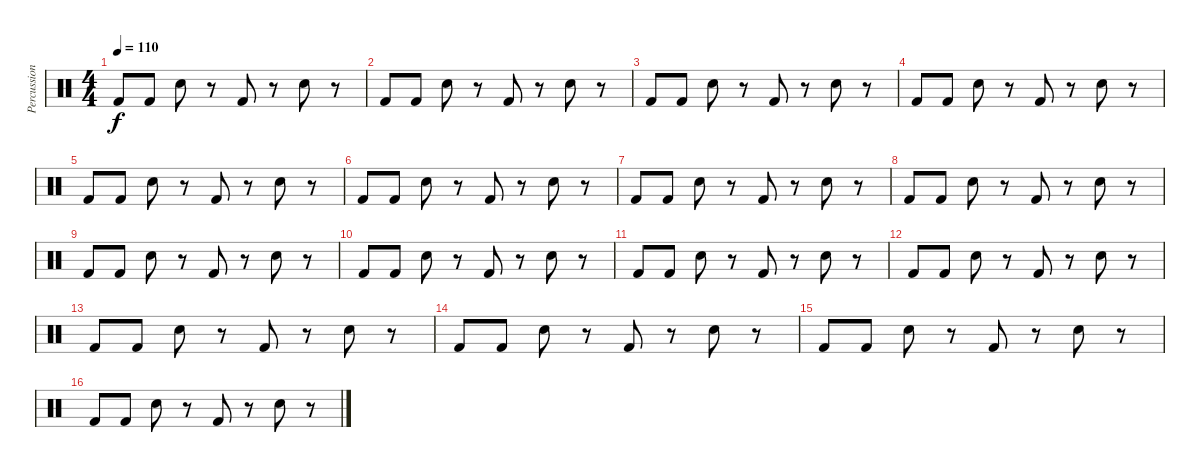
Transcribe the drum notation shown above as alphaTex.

\track ("Percussion" "Percussion") {instrument percussion}
\staff {score}
\articulation defaults
\ts (4 4)
\tempo 110
\clef neutral
\ks c "Kick (hit) 2".8{dy f} "Kick (hit) 2".8 "Snare (hit) 2".8
r.8 "Kick (hit) 2".8 r.8 "Snare (hit) 2".8 r.8 |
"Kick (hit) 2".8 "Kick (hit) 2".8 "Snare (hit) 2".8 r.8 "Kick (hit) 2".8 r.8 "Snare (hit) 2".8 r.8 |
"Kick (hit) 2".8 "Kick (hit) 2".8 "Snare (hit) 2".8 r.8 "Kick (hit) 2".8 r.8 "Snare (hit) 2".8 r.8 |
"Kick (hit) 2".8 "Kick (hit) 2".8 "Snare (hit) 2".8 r.8 "Kick (hit) 2".8 r.8 "Snare (hit) 2".8 r.8 |
"Kick (hit) 2".8 "Kick (hit) 2".8 "Snare (hit) 2".8 r.8 "Kick (hit) 2".8 r.8 "Snare (hit) 2".8 r.8 |
"Kick (hit) 2".8 "Kick (hit) 2".8 "Snare (hit) 2".8 r.8 "Kick (hit) 2".8 r.8 "Snare (hit) 2".8 r.8 |
"Kick (hit) 2".8 "Kick (hit) 2".8 "Snare (hit) 2".8 r.8 "Kick (hit) 2".8 r.8 "Snare (hit) 2".8 r.8 |
"Kick (hit) 2".8 "Kick (hit) 2".8 "Snare (hit) 2".8 r.8 "Kick (hit) 2".8 r.8 "Snare (hit) 2".8 r.8 |
"Kick (hit) 2".8 "Kick (hit) 2".8 "Snare (hit) 2".8 r.8 "Kick (hit) 2".8 r.8 "Snare (hit) 2".8 r.8 |
"Kick (hit) 2".8 "Kick (hit) 2".8 "Snare (hit) 2".8 r.8 "Kick (hit) 2".8 r.8 "Snare (hit) 2".8 r.8 |
"Kick (hit) 2".8 "Kick (hit) 2".8 "Snare (hit) 2".8 r.8 "Kick (hit) 2".8 r.8 "Snare (hit) 2".8 r.8 |
"Kick (hit) 2".8 "Kick (hit) 2".8 "Snare (hit) 2".8 r.8 "Kick (hit) 2".8 r.8 "Snare (hit) 2".8 r.8 |
"Kick (hit) 2".8 "Kick (hit) 2".8 "Snare (hit) 2".8 r.8 "Kick (hit) 2".8 r.8 "Snare (hit) 2".8 r.8 |
"Kick (hit) 2".8 "Kick (hit) 2".8 "Snare (hit) 2".8 r.8 "Kick (hit) 2".8 r.8 "Snare (hit) 2".8 r.8 |
"Kick (hit) 2".8 "Kick (hit) 2".8 "Snare (hit) 2".8 r.8 "Kick (hit) 2".8 r.8 "Snare (hit) 2".8 r.8 |
"Kick (hit) 2".8 "Kick (hit) 2".8 "Snare (hit) 2".8 r.8 "Kick (hit) 2".8 r.8 "Snare (hit) 2".8 r.8
